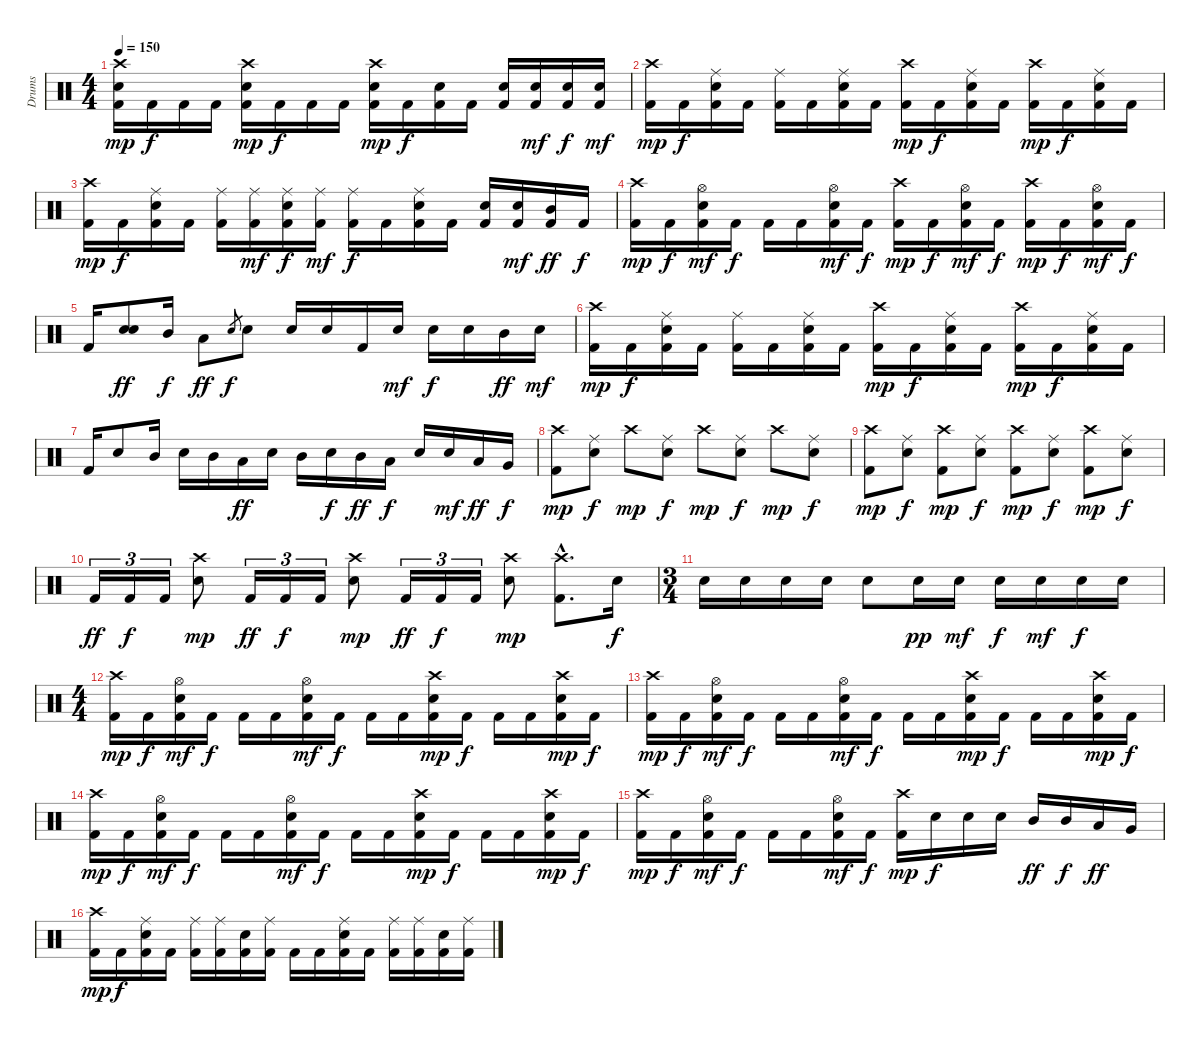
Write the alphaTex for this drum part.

\track ("Drums" "Drums") {instrument percussion}
\staff {score}
\articulation defaults
\ts (4 4)
\tempo 150
\clef neutral
\ks c
("Crash high (hit)" "Electric Snare (hit)" "Kick (hit) 2").16{dy mp} "Kick (hit) 2".16{dy f} "Kick (hit) 2".16 "Kick (hit) 2".16 ("Crash high (hit)" "Electric Snare (hit)" "Kick (hit) 2").16{dy mp} "Kick (hit) 2".16{dy f} "Kick (hit) 2".16 "Kick (hit) 2".16 ("Crash high (hit)" "Electric Snare (hit)" "Kick (hit) 2").16{dy mp} "Kick (hit) 2".16{dy f} ("Electric Snare (hit)" "Kick (hit) 2").16 "Kick (hit) 2".16 ("Electric Snare (hit)" "Kick (hit) 2").16 ("Electric Snare (hit)" "Kick (hit) 2").16{dy mf} ("Electric Snare (hit)" "Kick (hit) 2").16{dy f} ("Electric Snare (hit)" "Kick (hit) 2").16{dy mf} |
("Crash high (hit)" "Kick (hit) 2").16{dy mp} "Kick (hit) 2".16{dy f} ("Ride (middle)" "Electric Snare (hit)" "Kick (hit) 2").16 "Kick (hit) 2".16 ("Ride (middle)" "Kick (hit) 2").16 "Kick (hit) 2".16 ("Ride (middle)" "Electric Snare (hit)" "Kick (hit) 2").16 "Kick (hit) 2".16 ("Crash high (hit)" "Kick (hit) 2").16{dy mp} "Kick (hit) 2".16{dy f} ("Ride (middle)" "Electric Snare (hit)" "Kick (hit) 2").16 "Kick (hit) 2".16 ("Crash high (hit)" "Kick (hit) 2").16{dy mp} "Kick (hit) 2".16{dy f} ("Ride (middle)" "Electric Snare (hit)" "Kick (hit) 2").16 "Kick (hit) 2".16 |
("Crash high (hit)" "Kick (hit) 2").16{dy mp} "Kick (hit) 2".16{dy f} ("Ride (middle)" "Electric Snare (hit)" "Kick (hit) 2").16 "Kick (hit) 2".16 ("Ride (middle)" "Kick (hit) 2").16 ("Ride (middle)" "Kick (hit) 2").16{dy mf} ("Ride (middle)" "Electric Snare (hit)" "Kick (hit) 2").16{dy f} ("Ride (middle)" "Kick (hit) 2").16{dy mf} ("Ride (middle)" "Kick (hit) 2").16{dy f} "Kick (hit) 2".16 ("Ride (middle)" "Electric Snare (hit)" "Kick (hit) 2").16 "Kick (hit) 2".16 ("Electric Snare (hit)" "Kick (hit) 2").16 ("Electric Snare (hit)" "Kick (hit) 2").16{dy mf} ("Mid Tom (hit)" "Kick (hit) 2").16{dy ff} "Kick (hit) 2".16{dy f} |
("Crash high (hit)" "Kick (hit) 2").16{dy mp} "Kick (hit) 2".16{dy f} ("Hi-Hat (open)" "Electric Snare (hit)" "Kick (hit) 2").16{dy mf} "Kick (hit) 2".16{dy f} "Kick (hit) 2".16 "Kick (hit) 2".16 ("Hi-Hat (open)" "Electric Snare (hit)" "Kick (hit) 2").16{dy mf} "Kick (hit) 2".16{dy f} ("Crash high (hit)" "Kick (hit) 2").16{dy mp} "Kick (hit) 2".16{dy f} ("Hi-Hat (open)" "Electric Snare (hit)" "Kick (hit) 2").16{dy mf} "Kick (hit) 2".16{dy f} ("Crash high (hit)" "Kick (hit) 2").16{dy mp} "Kick (hit) 2".16{dy f} ("Hi-Hat (open)" "Electric Snare (hit)" "Kick (hit) 2").16{dy mf} "Kick (hit) 2".16{dy f} |
"Kick (hit) 2".16 ("Electric Snare (hit)" "Electric Snare (hit)").8{dy ff} "Mid Tom (hit)".16{dy f} "Low Tom (hit)".8{dy ff} "Electric Snare (hit)".8{gr dy f} "Electric Snare (hit)".8 "Electric Snare (hit)".16 "Electric Snare (hit)".16 "Kick (hit) 2".16 "Electric Snare (hit)".16{dy mf} "Electric Snare (hit)".16{dy f} "Electric Snare (hit)".16 "Mid Tom (hit)".16{dy ff} "Electric Snare (hit)".16{dy mf} |
("Crash high (hit)" "Kick (hit) 2").16{dy mp} "Kick (hit) 2".16{dy f} ("Ride (middle)" "Electric Snare (hit)" "Kick (hit) 2").16 "Kick (hit) 2".16 ("Ride (middle)" "Kick (hit) 2").16 "Kick (hit) 2".16 ("Ride (middle)" "Electric Snare (hit)" "Kick (hit) 2").16 "Kick (hit) 2".16 ("Crash high (hit)" "Kick (hit) 2").16{dy mp} "Kick (hit) 2".16{dy f} ("Ride (middle)" "Electric Snare (hit)" "Kick (hit) 2").16 "Kick (hit) 2".16 ("Crash high (hit)" "Kick (hit) 2").16{dy mp} "Kick (hit) 2".16{dy f} ("Ride (middle)" "Electric Snare (hit)" "Kick (hit) 2").16 "Kick (hit) 2".16 |
"Kick (hit) 2".16 "Electric Snare (hit)".8 "Mid Tom (hit)".16 "Electric Snare (hit)".16 "Mid Tom (hit)".16 "Low Tom (hit)".16{dy ff} "Electric Snare (hit)".16 "Mid Tom (hit)".16 "Electric Snare (hit)".16{dy f} "Mid Tom (hit)".16{dy ff} "Low Tom (hit)".16{dy f} "Electric Snare (hit)".16 "Electric Snare (hit)".16{dy mf} "Low Tom (hit)".16{dy ff} "Very Low Tom (hit)".16{dy f} |
("Crash high (hit)" "Kick (hit) 2").8{dy mp} ("Ride (middle)" "Electric Snare (hit)").8{dy f} "Crash high (hit)".8{dy mp} ("Ride (middle)" "Electric Snare (hit)").8{dy f} "Crash high (hit)".8{dy mp} ("Ride (middle)" "Electric Snare (hit)").8{dy f} "Crash high (hit)".8{dy mp} ("Ride (middle)" "Electric Snare (hit)").8{dy f} |
("Crash high (hit)" "Kick (hit) 2").8{dy mp} ("Ride (middle)" "Electric Snare (hit)").8{dy f} ("Crash high (hit)" "Kick (hit) 2").8{dy mp} ("Ride (middle)" "Electric Snare (hit)").8{dy f} ("Crash high (hit)" "Kick (hit) 2").8{dy mp} ("Ride (middle)" "Electric Snare (hit)").8{dy f} ("Crash high (hit)" "Kick (hit) 2").8{dy mp} ("Ride (middle)" "Electric Snare (hit)").8{dy f} |
"Kick (hit) 2".16{tu (3 2) dy ff} "Kick (hit) 2".16{tu (3 2) dy f} "Kick (hit) 2".16{tu (3 2)} ("Crash high (hit)" "Electric Snare (hit)").8{dy mp} "Kick (hit) 2".16{tu (3 2) dy ff} "Kick (hit) 2".16{tu (3 2) dy f} "Kick (hit) 2".16{tu (3 2)} ("Crash high (hit)" "Electric Snare (hit)").8{dy mp} "Kick (hit) 2".16{tu (3 2) dy ff} "Kick (hit) 2".16{tu (3 2) dy f} "Kick (hit) 2".16{tu (3 2)} ("Crash high (hit)" "Electric Snare (hit)").8{dy mp} ("Crash high (hit)"{hac} "Kick (hit) 2"{hac}).8{d} "Electric Snare (hit)".16{dy f} |
\ts (3 4)
"Electric Snare (hit)".16 "Electric Snare (hit)".16 "Electric Snare (hit)".16 "Electric Snare (hit)".16 "Electric Snare (hit)".8 "Electric Snare (hit)".16{dy pp} "Electric Snare (hit)".16{dy mf} "Electric Snare (hit)".16{dy f} "Electric Snare (hit)".16{dy mf} "Electric Snare (hit)".16{dy f} "Electric Snare (hit)".16 |
\ts (4 4)
("Crash high (hit)" "Kick (hit) 2").16{dy mp} "Kick (hit) 2".16{dy f} ("Hi-Hat (open)" "Electric Snare (hit)" "Kick (hit) 2").16{dy mf} "Kick (hit) 2".16{dy f} "Kick (hit) 2".16 "Kick (hit) 2".16 ("Hi-Hat (open)" "Electric Snare (hit)" "Kick (hit) 2").16{dy mf} "Kick (hit) 2".16{dy f} "Kick (hit) 2".16 "Kick (hit) 2".16 ("Crash high (hit)" "Electric Snare (hit)" "Kick (hit) 2").16{dy mp} "Kick (hit) 2".16{dy f} "Kick (hit) 2".16 "Kick (hit) 2".16 ("Crash high (hit)" "Electric Snare (hit)" "Kick (hit) 2").16{dy mp} "Kick (hit) 2".16{dy f} |
("Crash high (hit)" "Kick (hit) 2").16{dy mp} "Kick (hit) 2".16{dy f} ("Hi-Hat (open)" "Electric Snare (hit)" "Kick (hit) 2").16{dy mf} "Kick (hit) 2".16{dy f} "Kick (hit) 2".16 "Kick (hit) 2".16 ("Hi-Hat (open)" "Electric Snare (hit)" "Kick (hit) 2").16{dy mf} "Kick (hit) 2".16{dy f} "Kick (hit) 2".16 "Kick (hit) 2".16 ("Crash high (hit)" "Electric Snare (hit)" "Kick (hit) 2").16{dy mp} "Kick (hit) 2".16{dy f} "Kick (hit) 2".16 "Kick (hit) 2".16 ("Crash high (hit)" "Electric Snare (hit)" "Kick (hit) 2").16{dy mp} "Kick (hit) 2".16{dy f} |
("Crash high (hit)" "Kick (hit) 2").16{dy mp} "Kick (hit) 2".16{dy f} ("Hi-Hat (open)" "Electric Snare (hit)" "Kick (hit) 2").16{dy mf} "Kick (hit) 2".16{dy f} "Kick (hit) 2".16 "Kick (hit) 2".16 ("Hi-Hat (open)" "Electric Snare (hit)" "Kick (hit) 2").16{dy mf} "Kick (hit) 2".16{dy f} "Kick (hit) 2".16 "Kick (hit) 2".16 ("Crash high (hit)" "Electric Snare (hit)" "Kick (hit) 2").16{dy mp} "Kick (hit) 2".16{dy f} "Kick (hit) 2".16 "Kick (hit) 2".16 ("Crash high (hit)" "Electric Snare (hit)" "Kick (hit) 2").16{dy mp} "Kick (hit) 2".16{dy f} |
("Crash high (hit)" "Kick (hit) 2").16{dy mp} "Kick (hit) 2".16{dy f} ("Hi-Hat (open)" "Electric Snare (hit)" "Kick (hit) 2").16{dy mf} "Kick (hit) 2".16{dy f} "Kick (hit) 2".16 "Kick (hit) 2".16 ("Hi-Hat (open)" "Electric Snare (hit)" "Kick (hit) 2").16{dy mf} "Kick (hit) 2".16{dy f} ("Crash high (hit)" "Kick (hit) 2").16{dy mp} "Electric Snare (hit)".16{dy f} "Electric Snare (hit)".16 "Electric Snare (hit)".16 "Mid Tom (hit)".16{dy ff} "Mid Tom (hit)".16{dy f} "Low Tom (hit)".16{dy ff} "Very Low Tom (hit)".16 |
("Crash high (hit)" "Kick (hit) 2").16{dy mp} "Kick (hit) 2".16{dy f} ("Ride (middle)" "Electric Snare (hit)" "Kick (hit) 2").16 "Kick (hit) 2".16 ("Ride (middle)" "Kick (hit) 2").16 ("Ride (middle)" "Kick (hit) 2").16 ("Electric Snare (hit)" "Kick (hit) 2").16 ("Ride (middle)" "Kick (hit) 2").16 "Kick (hit) 2".16 "Kick (hit) 2".16 ("Ride (middle)" "Electric Snare (hit)" "Kick (hit) 2").16 "Kick (hit) 2".16 ("Ride (middle)" "Kick (hit) 2").16 ("Ride (middle)" "Kick (hit) 2").16 ("Electric Snare (hit)" "Kick (hit) 2").16 ("Ride (middle)" "Kick (hit) 2").16
